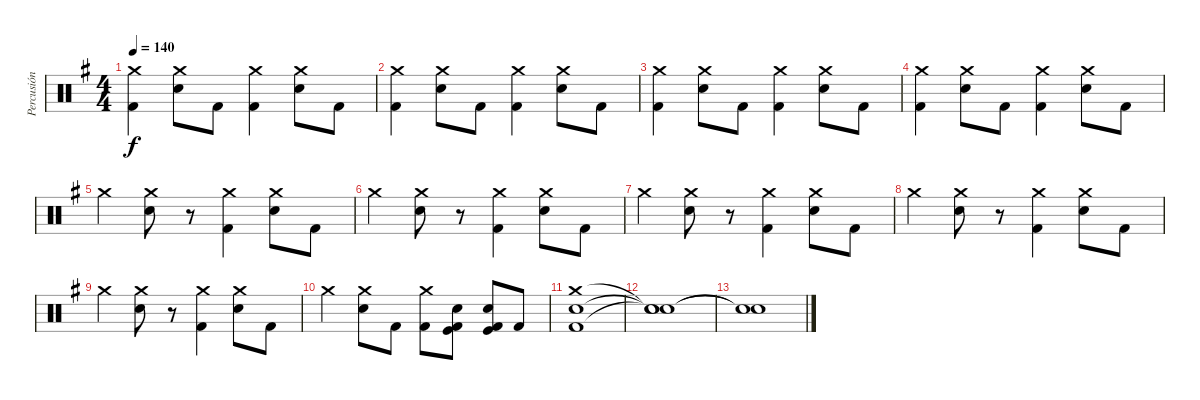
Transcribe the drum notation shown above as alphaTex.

\track ("Percusión" "Percusión") {instrument percussion}
\staff {score}
\articulation defaults
\ts (4 4)
\tempo 140
\clef neutral
\ks g
("Crash medium (hit)" "Kick (hit) 2").4{dy f} ("Crash medium (hit)" "Snare (hit) 2").8 "Kick (hit) 2".8 ("Crash medium (hit)" "Kick (hit) 2").4 ("Crash medium (hit)" "Snare (hit) 2").8 "Kick (hit) 2".8 |
("Crash medium (hit)" "Kick (hit) 2").4 ("Crash medium (hit)" "Snare (hit) 2").8 "Kick (hit) 2".8 ("Crash medium (hit)" "Kick (hit) 2").4 ("Crash medium (hit)" "Snare (hit) 2").8 "Kick (hit) 2".8 |
("Crash medium (hit)" "Kick (hit) 2").4 ("Crash medium (hit)" "Snare (hit) 2").8 "Kick (hit) 2".8 ("Crash medium (hit)" "Kick (hit) 2").4 ("Crash medium (hit)" "Snare (hit) 2").8 "Kick (hit) 2".8 |
("Crash medium (hit)" "Kick (hit) 2").4 ("Crash medium (hit)" "Snare (hit) 2").8 "Kick (hit) 2".8 ("Crash medium (hit)" "Kick (hit) 2").4 ("Crash medium (hit)" "Snare (hit) 2").8 "Kick (hit) 2".8 |
"Crash medium (hit)".4 ("Crash medium (hit)" "Snare (hit) 2").8 r.8 ("Crash medium (hit)" "Kick (hit) 2").4 ("Crash medium (hit)" "Snare (hit) 2").8 "Kick (hit) 2".8 |
"Crash medium (hit)".4{volume 10} ("Crash medium (hit)" "Snare (hit) 2").8 r.8 ("Crash medium (hit)" "Kick (hit) 2").4 ("Crash medium (hit)" "Snare (hit) 2").8 "Kick (hit) 2".8 |
"Crash medium (hit)".4 ("Crash medium (hit)" "Snare (hit) 2").8 r.8 ("Crash medium (hit)" "Kick (hit) 2").4 ("Crash medium (hit)" "Snare (hit) 2").8 "Kick (hit) 2".8 |
"Crash medium (hit)".4 ("Crash medium (hit)" "Snare (hit) 2").8 r.8 ("Crash medium (hit)" "Kick (hit) 2").4 ("Crash medium (hit)" "Snare (hit) 2").8 "Kick (hit) 2".8 |
"Crash medium (hit)".4 ("Crash medium (hit)" "Snare (hit) 2").8 r.8 ("Crash medium (hit)" "Kick (hit) 2").4 ("Crash medium (hit)" "Snare (hit) 2").8 "Kick (hit) 2".8 |
"Crash medium (hit)".4 ("Crash medium (hit)" "Snare (hit) 2").8 "Kick (hit) 2".8 ("Crash medium (hit)" "Kick (hit) 2").8 ("Snare (hit) 2" "Kick (hit)" "Kick (hit) 2").8{volume 16} ("Snare (hit) 2" "Kick (hit)" "Kick (hit) 2").8 "Kick (hit) 2".8 |
("Crash medium (hit)" "Snare (hit) 2" "Kick (hit) 2").1 |
("Snare (hit)"{t} "Snare (hit)"{t} "Snare (hit)"{t}).1 |
("Snare (hit)"{t} "Snare (hit)"{t}).1
